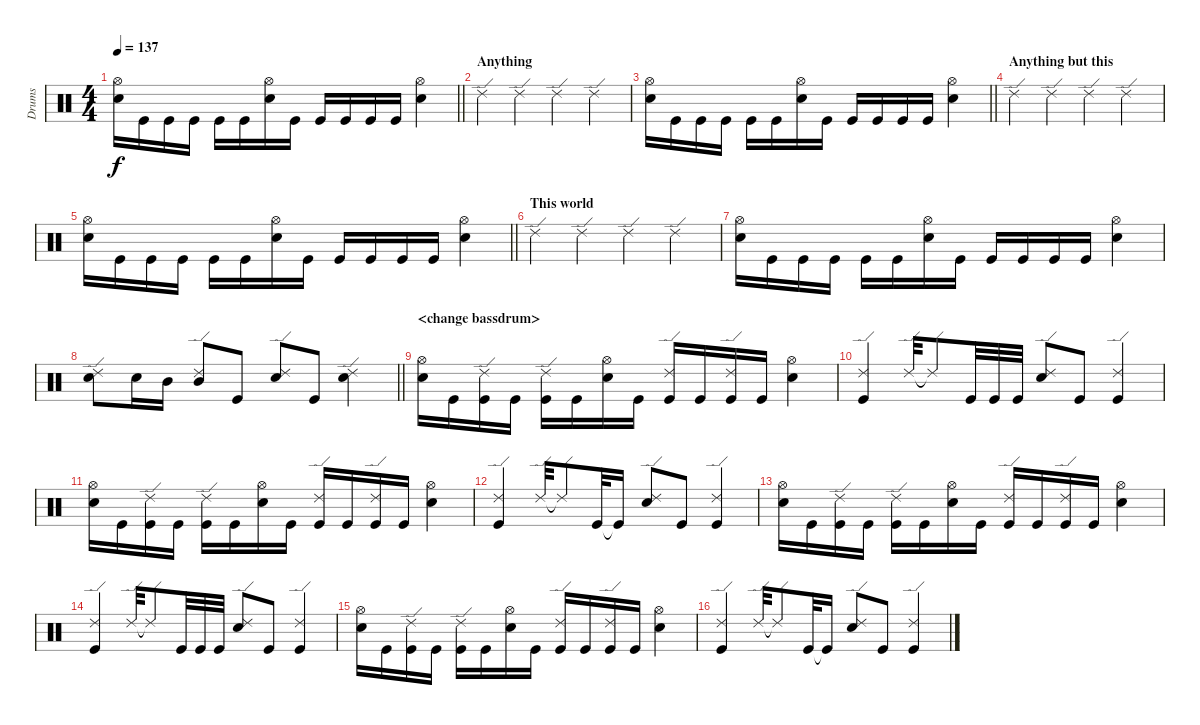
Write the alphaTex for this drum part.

\track ("Drums" "Drums") {instrument percussion}
\staff {score}
\articulation defaults
\ts (4 4)
\tempo 137
\clef neutral
\barLineRight lightlight
\ks c
("Hi-Hat (open)" "Snare (hit) 2").16{dy f} "Kick (hit)".16 "Kick (hit)".16 "Kick (hit)".16 "Kick (hit)".16 "Kick (hit)".16 ("Hi-Hat (open)" "Snare (hit) 2").16 "Kick (hit)".16 "Kick (hit)".16 "Kick (hit)".16 "Kick (hit)".16 "Kick (hit)".16 ("Hi-Hat (open)" "Snare (hit) 2").4 |
\section ("" "Anything")
"Ride (edge) 2".4 "Ride (edge) 2".4 "Ride (edge) 2".4 "Ride (edge) 2".4 |
\barLineRight lightlight
("Hi-Hat (open)" "Snare (hit) 2").16 "Kick (hit)".16 "Kick (hit)".16 "Kick (hit)".16 "Kick (hit)".16 "Kick (hit)".16 ("Hi-Hat (open)" "Snare (hit) 2").16 "Kick (hit)".16 "Kick (hit)".16 "Kick (hit)".16 "Kick (hit)".16 "Kick (hit)".16 ("Hi-Hat (open)" "Snare (hit) 2").4 |
\section ("" "Anything but this")
"Ride (edge) 2".4 "Ride (edge) 2".4 "Ride (edge) 2".4 "Ride (edge) 2".4 |
\barLineRight lightlight
("Hi-Hat (open)" "Snare (hit) 2").16 "Kick (hit)".16 "Kick (hit)".16 "Kick (hit)".16 "Kick (hit)".16 "Kick (hit)".16 ("Hi-Hat (open)" "Snare (hit) 2").16 "Kick (hit)".16 "Kick (hit)".16 "Kick (hit)".16 "Kick (hit)".16 "Kick (hit)".16 ("Hi-Hat (open)" "Snare (hit) 2").4 |
\section ("" "This world ")
"Ride (edge) 2".4 "Ride (edge) 2".4 "Ride (edge) 2".4 "Ride (edge) 2".4 |
("Hi-Hat (open)" "Snare (hit) 2").16 "Kick (hit)".16 "Kick (hit)".16 "Kick (hit)".16 "Kick (hit)".16 "Kick (hit)".16 ("Hi-Hat (open)" "Snare (hit) 2").16 "Kick (hit)".16 "Kick (hit)".16 "Kick (hit)".16 "Kick (hit)".16 "Kick (hit)".16 ("Hi-Hat (open)" "Snare (hit) 2").4 |
\barLineRight lightlight
("Ride (edge) 2" "Snare (hit) 2").8 "Snare (hit) 2".16 "Mid Tom (hit)".16 ("Ride (edge) 2" "Mid Tom (hit)").8 "Kick (hit)".8 ("Ride (edge) 2" "Snare (hit) 2").8 "Kick (hit)".8 ("Ride (edge) 2" "Snare (hit) 2").4 |
\section ("" "<change bassdrum>")
("Hi-Hat (open)" "Snare (hit) 2").16 "Kick (hit)".16 ("Ride (edge) 2" "Kick (hit)").16 "Kick (hit)".16 ("Ride (edge) 2" "Kick (hit)").16 "Kick (hit)".16 ("Hi-Hat (open)" "Snare (hit) 2").16 "Kick (hit)".16 ("Ride (edge) 2" "Kick (hit)").16 "Kick (hit)".16 ("Ride (edge) 2" "Kick (hit)").16 "Kick (hit)".16 ("Hi-Hat (open)" "Snare (hit) 2").4 |
("Ride (edge) 2" "Kick (hit)").4 "Ride (edge) 2".32 "Ride (edge) 2"{t}.8 "Kick (hit)".32 "Kick (hit)".32 "Kick (hit)".32 ("Ride (edge) 2" "Snare (hit) 2").8 "Kick (hit)".8 ("Ride (edge) 2" "Kick (hit)").4 |
("Hi-Hat (open)" "Snare (hit) 2").16 "Kick (hit)".16 ("Ride (edge) 2" "Kick (hit)").16 "Kick (hit)".16 ("Ride (edge) 2" "Kick (hit)").16 "Kick (hit)".16 ("Hi-Hat (open)" "Snare (hit) 2").16 "Kick (hit)".16 ("Ride (edge) 2" "Kick (hit)").16 "Kick (hit)".16 ("Ride (edge) 2" "Kick (hit)").16 "Kick (hit)".16 ("Hi-Hat (open)" "Snare (hit) 2").4 |
("Ride (edge) 2" "Kick (hit)").4 "Ride (edge) 2".32 "Ride (edge) 2"{t}.8 "Kick (hit)".32 "Kick (hit)"{t}.16 ("Ride (edge) 2" "Snare (hit) 2").8 "Kick (hit)".8 ("Ride (edge) 2" "Kick (hit)").4 |
("Hi-Hat (open)" "Snare (hit) 2").16 "Kick (hit)".16 ("Ride (edge) 2" "Kick (hit)").16 "Kick (hit)".16 ("Ride (edge) 2" "Kick (hit)").16 "Kick (hit)".16 ("Hi-Hat (open)" "Snare (hit) 2").16 "Kick (hit)".16 ("Ride (edge) 2" "Kick (hit)").16 "Kick (hit)".16 ("Ride (edge) 2" "Kick (hit)").16 "Kick (hit)".16 ("Hi-Hat (open)" "Snare (hit) 2").4 |
("Ride (edge) 2" "Kick (hit)").4 "Ride (edge) 2".32 "Ride (edge) 2"{t}.8 "Kick (hit)".32 "Kick (hit)".32 "Kick (hit)".32 ("Ride (edge) 2" "Snare (hit) 2").8 "Kick (hit)".8 ("Ride (edge) 2" "Kick (hit)").4 |
("Hi-Hat (open)" "Snare (hit) 2").16 "Kick (hit)".16 ("Ride (edge) 2" "Kick (hit)").16 "Kick (hit)".16 ("Ride (edge) 2" "Kick (hit)").16 "Kick (hit)".16 ("Hi-Hat (open)" "Snare (hit) 2").16 "Kick (hit)".16 ("Ride (edge) 2" "Kick (hit)").16 "Kick (hit)".16 ("Ride (edge) 2" "Kick (hit)").16 "Kick (hit)".16 ("Hi-Hat (open)" "Snare (hit) 2").4 |
("Ride (edge) 2" "Kick (hit)").4 "Ride (edge) 2".32 "Ride (edge) 2"{t}.8 "Kick (hit)".32 "Kick (hit)"{t}.16 ("Ride (edge) 2" "Snare (hit) 2").8 "Kick (hit)".8 ("Ride (edge) 2" "Kick (hit)").4
